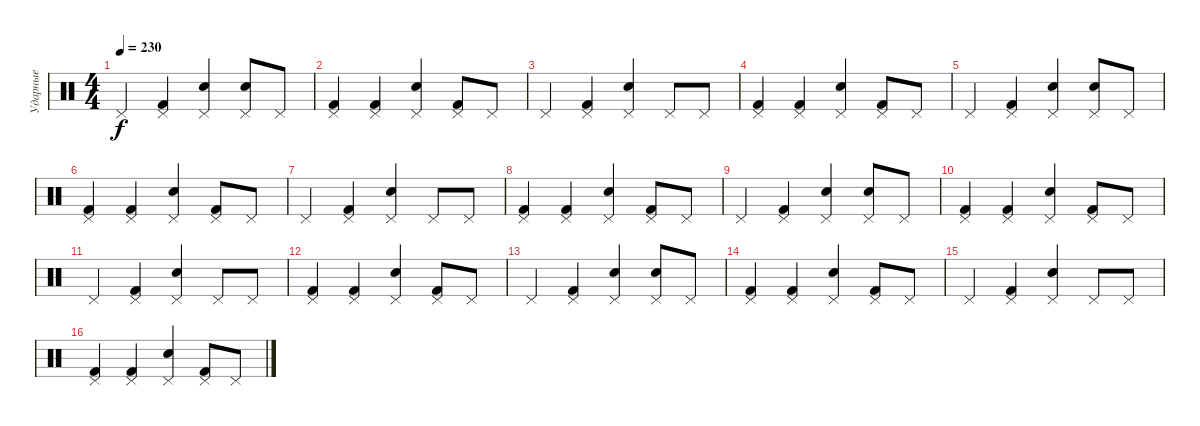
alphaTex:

\track ("Ударные" "Ударные") {instrument percussion}
\staff {score}
\articulation defaults
\ts (4 4)
\tempo 230
\clef neutral
\ks c "Pedal Hi-Hat (hit)".4{dy f}
("Pedal Hi-Hat (hit)" "Kick (hit) 2").4 ("Pedal Hi-Hat (hit)" "Snare (hit) 2").4 ("Pedal Hi-Hat (hit)" "Snare (hit) 2").8 "Pedal Hi-Hat (hit)".8 |
("Pedal Hi-Hat (hit)" "Kick (hit) 2").4 ("Pedal Hi-Hat (hit)" "Kick (hit) 2").4 ("Pedal Hi-Hat (hit)" "Snare (hit) 2").4 ("Pedal Hi-Hat (hit)" "Kick (hit) 2").8 "Pedal Hi-Hat (hit)".8 |
"Pedal Hi-Hat (hit)".4 ("Pedal Hi-Hat (hit)" "Kick (hit) 2").4 ("Pedal Hi-Hat (hit)" "Snare (hit) 2").4 "Pedal Hi-Hat (hit)".8 "Pedal Hi-Hat (hit)".8 |
("Pedal Hi-Hat (hit)" "Kick (hit) 2").4 ("Pedal Hi-Hat (hit)" "Kick (hit) 2").4 ("Pedal Hi-Hat (hit)" "Snare (hit) 2").4 ("Pedal Hi-Hat (hit)" "Kick (hit) 2").8 "Pedal Hi-Hat (hit)".8 |
"Pedal Hi-Hat (hit)".4 ("Pedal Hi-Hat (hit)" "Kick (hit) 2").4 ("Pedal Hi-Hat (hit)" "Snare (hit) 2").4 ("Pedal Hi-Hat (hit)" "Snare (hit) 2").8 "Pedal Hi-Hat (hit)".8 |
("Pedal Hi-Hat (hit)" "Kick (hit) 2").4 ("Pedal Hi-Hat (hit)" "Kick (hit) 2").4 ("Pedal Hi-Hat (hit)" "Snare (hit) 2").4 ("Pedal Hi-Hat (hit)" "Kick (hit) 2").8 "Pedal Hi-Hat (hit)".8 |
"Pedal Hi-Hat (hit)".4 ("Pedal Hi-Hat (hit)" "Kick (hit) 2").4 ("Pedal Hi-Hat (hit)" "Snare (hit) 2").4 "Pedal Hi-Hat (hit)".8 "Pedal Hi-Hat (hit)".8 |
("Pedal Hi-Hat (hit)" "Kick (hit) 2").4 ("Pedal Hi-Hat (hit)" "Kick (hit) 2").4 ("Pedal Hi-Hat (hit)" "Snare (hit) 2").4 ("Pedal Hi-Hat (hit)" "Kick (hit) 2").8 "Pedal Hi-Hat (hit)".8 |
"Pedal Hi-Hat (hit)".4 ("Pedal Hi-Hat (hit)" "Kick (hit) 2").4 ("Pedal Hi-Hat (hit)" "Snare (hit) 2").4 ("Pedal Hi-Hat (hit)" "Snare (hit) 2").8 "Pedal Hi-Hat (hit)".8 |
("Pedal Hi-Hat (hit)" "Kick (hit) 2").4 ("Pedal Hi-Hat (hit)" "Kick (hit) 2").4 ("Pedal Hi-Hat (hit)" "Snare (hit) 2").4 ("Pedal Hi-Hat (hit)" "Kick (hit) 2").8 "Pedal Hi-Hat (hit)".8 |
"Pedal Hi-Hat (hit)".4 ("Pedal Hi-Hat (hit)" "Kick (hit) 2").4 ("Pedal Hi-Hat (hit)" "Snare (hit) 2").4 "Pedal Hi-Hat (hit)".8 "Pedal Hi-Hat (hit)".8 |
("Pedal Hi-Hat (hit)" "Kick (hit) 2").4 ("Pedal Hi-Hat (hit)" "Kick (hit) 2").4 ("Pedal Hi-Hat (hit)" "Snare (hit) 2").4 ("Pedal Hi-Hat (hit)" "Kick (hit) 2").8 "Pedal Hi-Hat (hit)".8 |
"Pedal Hi-Hat (hit)".4 ("Pedal Hi-Hat (hit)" "Kick (hit) 2").4 ("Pedal Hi-Hat (hit)" "Snare (hit) 2").4 ("Pedal Hi-Hat (hit)" "Snare (hit) 2").8 "Pedal Hi-Hat (hit)".8 |
("Pedal Hi-Hat (hit)" "Kick (hit) 2").4 ("Pedal Hi-Hat (hit)" "Kick (hit) 2").4 ("Pedal Hi-Hat (hit)" "Snare (hit) 2").4 ("Pedal Hi-Hat (hit)" "Kick (hit) 2").8 "Pedal Hi-Hat (hit)".8 |
"Pedal Hi-Hat (hit)".4 ("Pedal Hi-Hat (hit)" "Kick (hit) 2").4 ("Pedal Hi-Hat (hit)" "Snare (hit) 2").4 "Pedal Hi-Hat (hit)".8 "Pedal Hi-Hat (hit)".8 |
("Pedal Hi-Hat (hit)" "Kick (hit) 2").4 ("Pedal Hi-Hat (hit)" "Kick (hit) 2").4 ("Pedal Hi-Hat (hit)" "Snare (hit) 2").4 ("Pedal Hi-Hat (hit)" "Kick (hit) 2").8 "Pedal Hi-Hat (hit)".8
